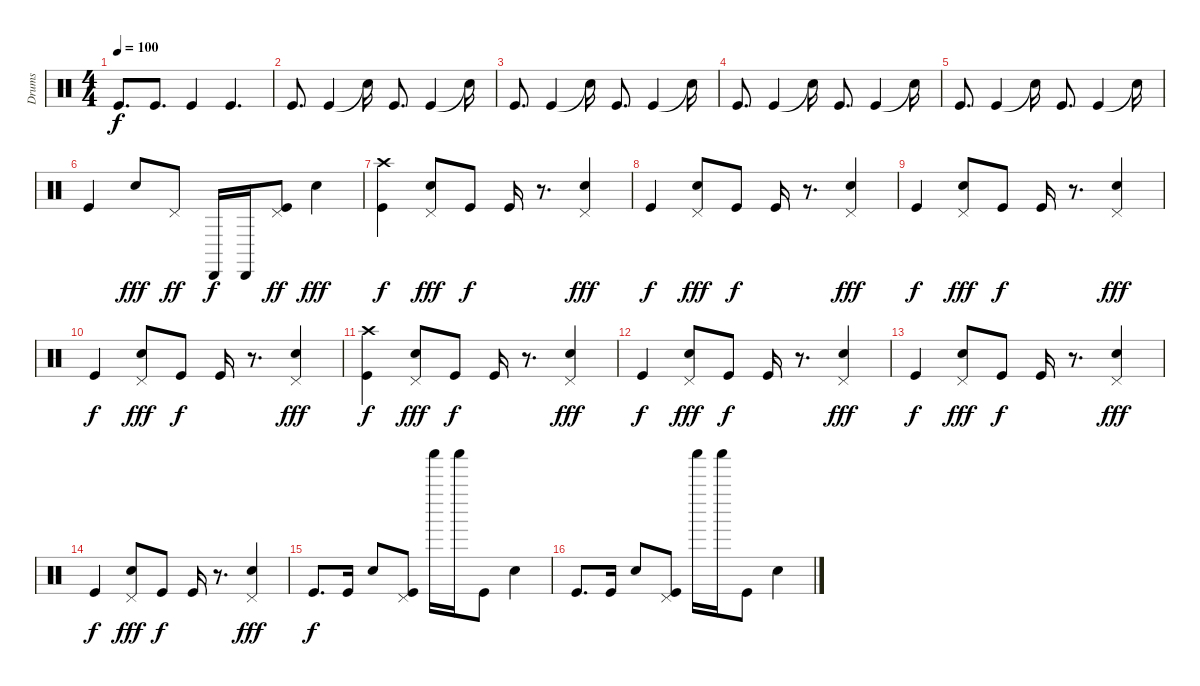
\track ("Drums" "Drums") {instrument percussion}
\staff {score}
\articulation defaults
\ts (4 4)
\tempo 100
\clef neutral
\ks c "Kick (hit)".8{d dy f} "Kick (hit)".8{d} "Kick (hit)".4 "Kick (hit)".4{d}
|
"Kick (hit)".8{d} "Kick (hit)".4 "Snare (hit)"{t}.16 "Kick (hit)".8{d} "Kick (hit)".4 "Snare (hit)"{t}.16 |
"Kick (hit)".8{d} "Kick (hit)".4 "Snare (hit)"{t}.16 "Kick (hit)".8{d} "Kick (hit)".4 "Snare (hit)"{t}.16 |
"Kick (hit)".8{d} "Kick (hit)".4 "Snare (hit)"{t}.16 "Kick (hit)".8{d} "Kick (hit)".4 "Snare (hit)"{t}.16 |
"Kick (hit)".8{d} "Kick (hit)".4 "Snare (hit)"{t}.16 "Kick (hit)".8{d} "Kick (hit)".4 "Snare (hit)"{t}.16 |
"Kick (hit)".4 "Electric Snare (hit)".8{dy fff} "Pedal Hi-Hat (hit)".8{dy ff} "Cabasa (hit)".16{dy f} "Cabasa (hit)".16 ("Pedal Hi-Hat (hit)" "Kick (hit)").8{dy ff} "Electric Snare (hit)".4{dy fff} |
("Crash high (hit)" "Kick (hit)").4{dy f} ("Pedal Hi-Hat (hit)" "Electric Snare (hit)").8{dy fff} "Kick (hit)".8{dy f} "Kick (hit)".16 r.8{d} ("Pedal Hi-Hat (hit)" "Electric Snare (hit)").4{dy fff} |
"Kick (hit)".4{dy f} ("Pedal Hi-Hat (hit)" "Electric Snare (hit)").8{dy fff} "Kick (hit)".8{dy f} "Kick (hit)".16 r.8{d} ("Pedal Hi-Hat (hit)" "Electric Snare (hit)").4{dy fff} |
"Kick (hit)".4{dy f} ("Pedal Hi-Hat (hit)" "Electric Snare (hit)").8{dy fff} "Kick (hit)".8{dy f} "Kick (hit)".16 r.8{d} ("Pedal Hi-Hat (hit)" "Electric Snare (hit)").4{dy fff} |
"Kick (hit)".4{dy f} ("Pedal Hi-Hat (hit)" "Electric Snare (hit)").8{dy fff} "Kick (hit)".8{dy f} "Kick (hit)".16 r.8{d} ("Pedal Hi-Hat (hit)" "Electric Snare (hit)").4{dy fff} |
("Crash high (hit)" "Kick (hit)").4{dy f} ("Pedal Hi-Hat (hit)" "Electric Snare (hit)").8{dy fff} "Kick (hit)".8{dy f} "Kick (hit)".16 r.8{d} ("Pedal Hi-Hat (hit)" "Electric Snare (hit)").4{dy fff} |
"Kick (hit)".4{dy f} ("Pedal Hi-Hat (hit)" "Electric Snare (hit)").8{dy fff} "Kick (hit)".8{dy f} "Kick (hit)".16 r.8{d} ("Pedal Hi-Hat (hit)" "Electric Snare (hit)").4{dy fff} |
"Kick (hit)".4{dy f} ("Pedal Hi-Hat (hit)" "Electric Snare (hit)").8{dy fff} "Kick (hit)".8{dy f} "Kick (hit)".16 r.8{d} ("Pedal Hi-Hat (hit)" "Electric Snare (hit)").4{dy fff} |
"Kick (hit)".4{dy f} ("Pedal Hi-Hat (hit)" "Electric Snare (hit)").8{dy fff} "Kick (hit)".8{dy f} "Kick (hit)".16 r.8{d} ("Pedal Hi-Hat (hit)" "Electric Snare (hit)").4{dy fff} |
"Kick (hit)".8{d dy f} "Kick (hit)".16 "Electric Snare (hit)".8 ("Pedal Hi-Hat (hit)" "Kick (hit)").8 "Shaker (hit)".16 "Shaker (hit)".16 "Kick (hit)".8 "Electric Snare (hit)".4 |
"Kick (hit)".8{d} "Kick (hit)".16 "Electric Snare (hit)".8 ("Pedal Hi-Hat (hit)" "Kick (hit)").8 "Shaker (hit)".16 "Shaker (hit)".16 "Kick (hit)".8 "Electric Snare (hit)".4
